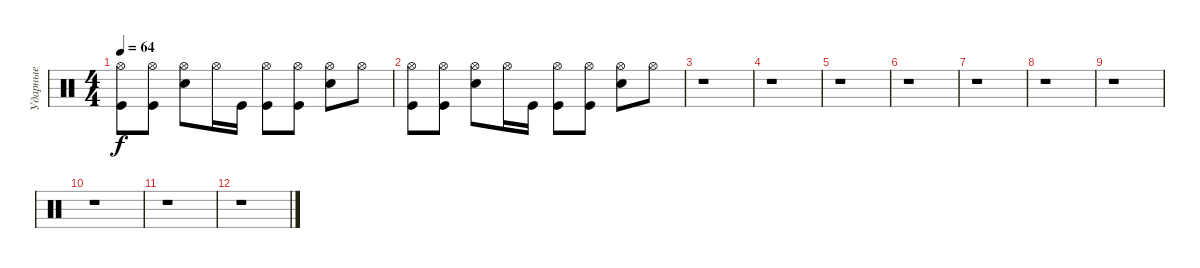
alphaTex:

\track ("Ударные" "Ударные") {instrument percussion}
\staff {score}
\articulation defaults
\ts (4 4)
\tempo 64
\clef neutral
\ks c
("Hi-Hat (open)" "Kick (hit)").8{dy f} ("Hi-Hat (open)" "Kick (hit)").8 ("Snare (hit) 2" "Hi-Hat (open)").8 "Hi-Hat (open)".16 "Kick (hit)".16 ("Hi-Hat (open)" "Kick (hit)").8 ("Hi-Hat (open)" "Kick (hit)").8 ("Hi-Hat (open)" "Snare (hit) 2").8 "Hi-Hat (open)".8 |
("Hi-Hat (open)" "Kick (hit)").8 ("Hi-Hat (open)" "Kick (hit)").8 ("Snare (hit) 2" "Hi-Hat (open)").8 "Hi-Hat (open)".16 "Kick (hit)".16 ("Hi-Hat (open)" "Kick (hit)").8 ("Hi-Hat (open)" "Kick (hit)").8 ("Hi-Hat (open)" "Snare (hit) 2").8 "Hi-Hat (open)".8 |
r.1 |
r.1 |
r.1 |
r.1 |
r.1 |
r.1 |
r.1 |
r.1 |
r.1 |
r.1
